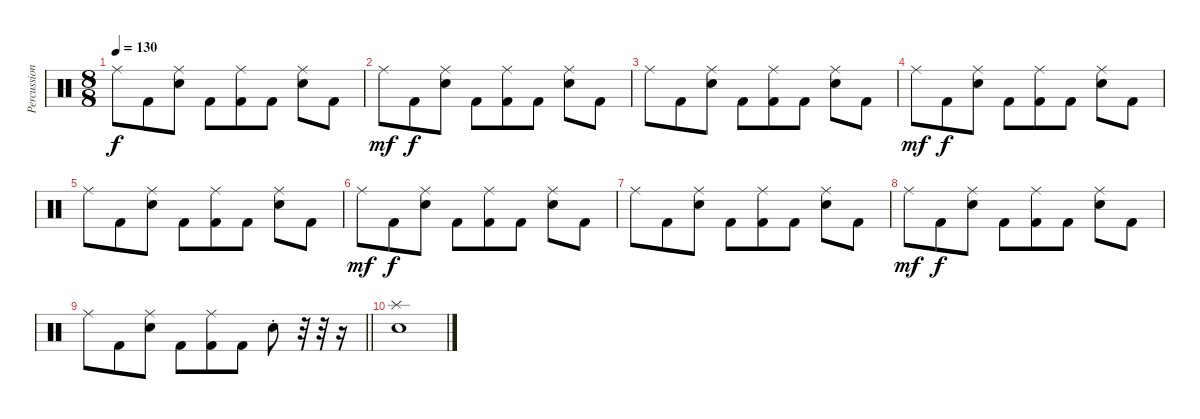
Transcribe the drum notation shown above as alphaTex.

\track ("Percussion" "Percussion") {instrument percussion}
\staff {score}
\articulation defaults
\ts (8 8)
\tempo 130
\clef neutral
\ks c "Ride (middle)".8{dy f} "Kick (hit) 2".8
("Ride (middle)" "Snare (hit) 2").8 "Kick (hit) 2".8 ("Ride (middle)" "Kick (hit) 2").8 "Kick (hit) 2".8 ("Ride (middle)" "Snare (hit) 2").8 "Kick (hit) 2".8 |
"Ride (middle)".8{dy mf} "Kick (hit) 2".8{dy f} ("Ride (middle)" "Snare (hit) 2").8 "Kick (hit) 2".8 ("Ride (middle)" "Kick (hit) 2").8 "Kick (hit) 2".8 ("Ride (middle)" "Snare (hit) 2").8 "Kick (hit) 2".8 |
"Ride (middle)".8 "Kick (hit) 2".8 ("Ride (middle)" "Snare (hit) 2").8 "Kick (hit) 2".8 ("Ride (middle)" "Kick (hit) 2").8 "Kick (hit) 2".8 ("Ride (middle)" "Snare (hit) 2").8 "Kick (hit) 2".8 |
"Ride (middle)".8{dy mf} "Kick (hit) 2".8{dy f} ("Ride (middle)" "Snare (hit) 2").8 "Kick (hit) 2".8 ("Ride (middle)" "Kick (hit) 2").8 "Kick (hit) 2".8 ("Ride (middle)" "Snare (hit) 2").8 "Kick (hit) 2".8 |
"Ride (middle)".8 "Kick (hit) 2".8 ("Ride (middle)" "Snare (hit) 2").8 "Kick (hit) 2".8 ("Ride (middle)" "Kick (hit) 2").8 "Kick (hit) 2".8 ("Ride (middle)" "Snare (hit) 2").8 "Kick (hit) 2".8 |
"Ride (middle)".8{dy mf} "Kick (hit) 2".8{dy f} ("Ride (middle)" "Snare (hit) 2").8 "Kick (hit) 2".8 ("Ride (middle)" "Kick (hit) 2").8 "Kick (hit) 2".8 ("Ride (middle)" "Snare (hit) 2").8 "Kick (hit) 2".8 |
"Ride (middle)".8 "Kick (hit) 2".8 ("Ride (middle)" "Snare (hit) 2").8 "Kick (hit) 2".8 ("Ride (middle)" "Kick (hit) 2").8 "Kick (hit) 2".8 ("Ride (middle)" "Snare (hit) 2").8 "Kick (hit) 2".8 |
"Ride (middle)".8{dy mf} "Kick (hit) 2".8{dy f} ("Ride (middle)" "Snare (hit) 2").8 "Kick (hit) 2".8 ("Ride (middle)" "Kick (hit) 2").8 "Kick (hit) 2".8 ("Ride (middle)" "Snare (hit) 2").8 "Kick (hit) 2".8 |
\barLineRight lightlight "Ride (middle)".8 "Kick (hit) 2".8
("Ride (middle)" "Snare (hit) 2").8 "Kick (hit) 2".8 ("Ride (middle)" "Kick (hit) 2").8 "Kick (hit) 2".8 "Snare (hit) 2"{st}.8 r.32 r.32 r.16 |
("Splash (hit)" "Snare (hit) 2").1
